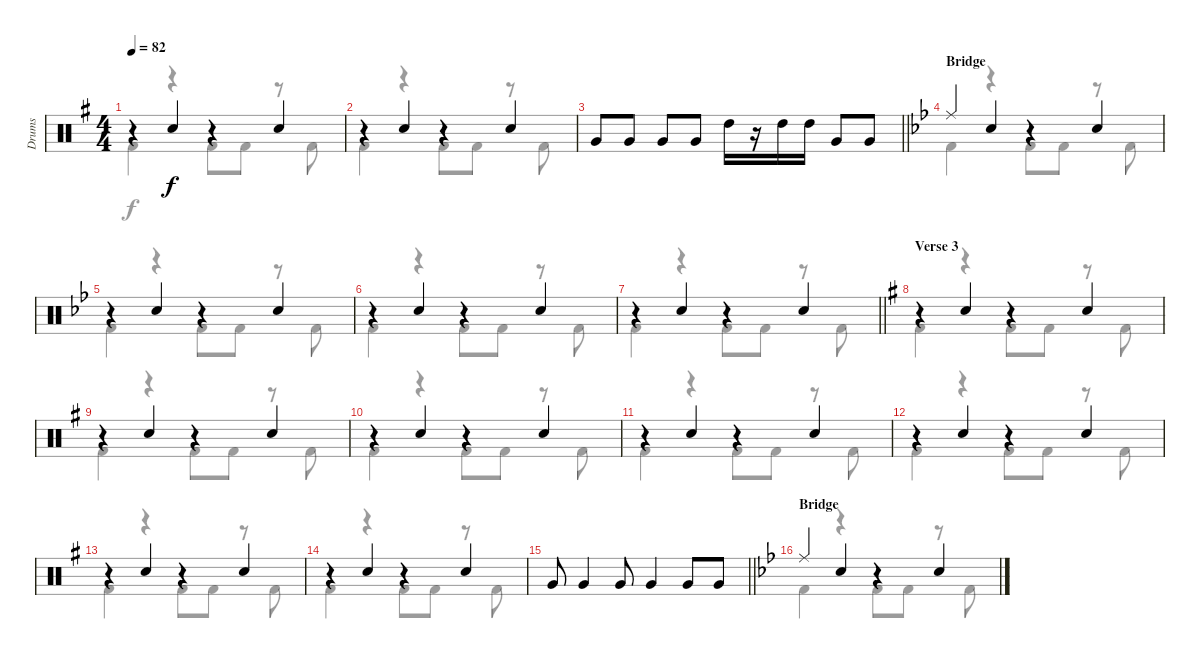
\track ("Drums" "Drums") {instrument percussion}
\staff {score}
\articulation defaults
\voice
\ts (4 4)
\tempo 82
\clef neutral
\ks eminor
r.4{dy f} "Electric Snare (hit)".4 r.4 "Electric Snare (hit)".4 |
r.4 "Electric Snare (hit)".4 r.4 "Electric Snare (hit)".4 |
\barLineRight lightlight "Very Low Tom (hit)".8 "Very Low Tom (hit)".8 "Very Low Tom (hit)".8 "Very Low Tom (hit)".8 "High Tom (hit)".16
r.16 "High Tom (hit)".16 "High Tom (hit)".16 "Very Low Tom (hit)".8 "Very Low Tom (hit)".8 |
\section ("" "Bridge")
\ks bb "Ride (middle)".4 "Electric Snare (hit)".4
r.4 "Electric Snare (hit)".4 |
r.4 "Electric Snare (hit)".4 r.4 "Electric Snare (hit)".4 |
r.4 "Electric Snare (hit)".4 r.4 "Electric Snare (hit)".4 |
\barLineRight lightlight
r.4 "Electric Snare (hit)".4 r.4 "Electric Snare (hit)".4 |
\section ("" "Verse 3")
\ks eminor
r.4 "Electric Snare (hit)".4 r.4 "Electric Snare (hit)".4 |
r.4 "Electric Snare (hit)".4 r.4 "Electric Snare (hit)".4 |
r.4 "Electric Snare (hit)".4 r.4 "Electric Snare (hit)".4 |
r.4 "Electric Snare (hit)".4 r.4 "Electric Snare (hit)".4 |
r.4 "Electric Snare (hit)".4 r.4 "Electric Snare (hit)".4 |
r.4 "Electric Snare (hit)".4 r.4 "Electric Snare (hit)".4 |
r.4 "Electric Snare (hit)".4 r.4 "Electric Snare (hit)".4 |
\barLineRight lightlight
\ks g "Very Low Tom (hit)".8 "Very Low Tom (hit)".4 "Very Low Tom (hit)".8 "Very Low Tom (hit)".4 "Very Low Tom (hit)".8 "Very Low Tom (hit)".8
|
\section ("" "Bridge")
\ks bb "Ride (middle)".4 "Electric Snare (hit)".4
r.4 "Electric Snare (hit)".4
\voice
\clef neutral
\ottava regular
\simile none
\ks eminor "Kick (hit) 2".4{dy f}
r.4 "Kick (hit) 2".8 "Kick (hit) 2".8 r.8 "Kick (hit) 2".8 |
"Kick (hit) 2".4 r.4 "Kick (hit) 2".8 "Kick (hit) 2".8 r.8 "Kick (hit) 2".8 |
\barLineRight lightlight
|
\ks bb "Kick (hit) 2".4
r.4 "Kick (hit) 2".8 "Kick (hit) 2".8 r.8 "Kick (hit) 2".8 |
"Kick (hit) 2".4 r.4 "Kick (hit) 2".8 "Kick (hit) 2".8 r.8 "Kick (hit) 2".8 |
"Kick (hit) 2".4 r.4 "Kick (hit) 2".8 "Kick (hit) 2".8 r.8 "Kick (hit) 2".8 |
\barLineRight lightlight "Kick (hit) 2".4
r.4 "Kick (hit) 2".8 "Kick (hit) 2".8 r.8 "Kick (hit) 2".8 |
\ks eminor "Kick (hit) 2".4
r.4 "Kick (hit) 2".8 "Kick (hit) 2".8 r.8 "Kick (hit) 2".8 |
"Kick (hit) 2".4 r.4 "Kick (hit) 2".8 "Kick (hit) 2".8 r.8 "Kick (hit) 2".8 |
"Kick (hit) 2".4 r.4 "Kick (hit) 2".8 "Kick (hit) 2".8 r.8 "Kick (hit) 2".8 |
"Kick (hit) 2".4 r.4 "Kick (hit) 2".8 "Kick (hit) 2".8 r.8 "Kick (hit) 2".8 |
"Kick (hit) 2".4 r.4 "Kick (hit) 2".8 "Kick (hit) 2".8 r.8 "Kick (hit) 2".8 |
"Kick (hit) 2".4 r.4 "Kick (hit) 2".8 "Kick (hit) 2".8 r.8 "Kick (hit) 2".8 |
"Kick (hit) 2".4 r.4 "Kick (hit) 2".8 "Kick (hit) 2".8 r.8 "Kick (hit) 2".8 |
\barLineRight lightlight
\ks g
|
\ks bb "Kick (hit) 2".4
r.4 "Kick (hit) 2".8 "Kick (hit) 2".8 r.8 "Kick (hit) 2".8
